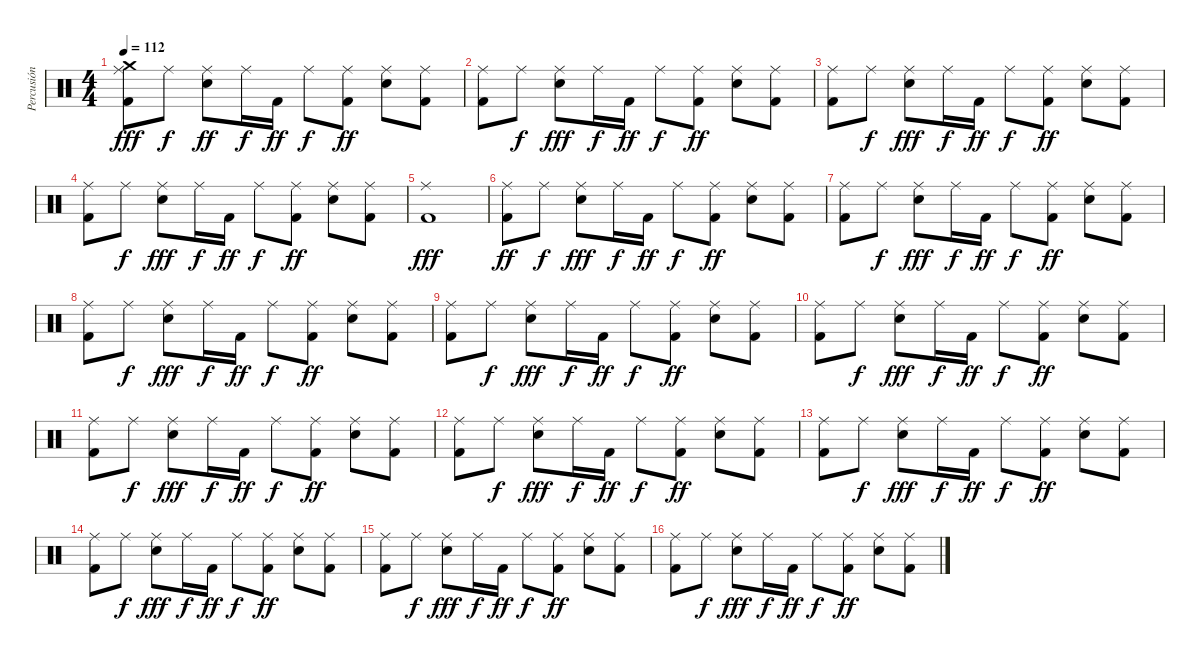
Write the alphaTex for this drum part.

\track ("Percusión" "Percusión") {instrument percussion}
\staff {score}
\articulation defaults
\ts (4 4)
\tempo 112
\clef neutral
\ks c
("Kick (hit) 2" "Ride (middle)" "Crash medium (hit)").8{dy fff} "Ride (middle)".8{dy f} ("Snare (hit) 2" "Ride (middle)").8{dy ff} "Ride (middle)".16{dy f} "Kick (hit) 2".16{dy ff} "Ride (middle)".8{dy f} ("Kick (hit) 2" "Ride (middle)").8{dy ff} ("Snare (hit) 2" "Ride (middle)").8 ("Kick (hit) 2" "Ride (middle)").8 |
("Kick (hit) 2" "Ride (middle)").8 "Ride (middle)".8{dy f} ("Snare (hit) 2" "Ride (middle)").8{dy fff} "Ride (middle)".16{dy f} "Kick (hit) 2".16{dy ff} "Ride (middle)".8{dy f} ("Kick (hit) 2" "Ride (middle)").8{dy ff} ("Snare (hit) 2" "Ride (middle)").8 ("Kick (hit) 2" "Ride (middle)").8 |
("Kick (hit) 2" "Ride (middle)").8 "Ride (middle)".8{dy f} ("Snare (hit) 2" "Ride (middle)").8{dy fff} "Ride (middle)".16{dy f} "Kick (hit) 2".16{dy ff} "Ride (middle)".8{dy f} ("Kick (hit) 2" "Ride (middle)").8{dy ff} ("Snare (hit) 2" "Ride (middle)").8 ("Kick (hit) 2" "Ride (middle)").8 |
("Kick (hit) 2" "Ride (middle)").8 "Ride (middle)".8{dy f} ("Snare (hit) 2" "Ride (middle)").8{dy fff} "Ride (middle)".16{dy f} "Kick (hit) 2".16{dy ff} "Ride (middle)".8{dy f} ("Kick (hit) 2" "Ride (middle)").8{dy ff} ("Snare (hit) 2" "Ride (middle)").8 ("Kick (hit) 2" "Ride (middle)").8 |
("Ride (middle)" "Kick (hit) 2").1{dy fff} |
("Kick (hit) 2" "Ride (middle)").8{dy ff} "Ride (middle)".8{dy f} ("Snare (hit) 2" "Ride (middle)").8{dy fff} "Ride (middle)".16{dy f} "Kick (hit) 2".16{dy ff} "Ride (middle)".8{dy f} ("Kick (hit) 2" "Ride (middle)").8{dy ff} ("Snare (hit) 2" "Ride (middle)").8 ("Kick (hit) 2" "Ride (middle)").8 |
("Kick (hit) 2" "Ride (middle)").8 "Ride (middle)".8{dy f} ("Snare (hit) 2" "Ride (middle)").8{dy fff} "Ride (middle)".16{dy f} "Kick (hit) 2".16{dy ff} "Ride (middle)".8{dy f} ("Kick (hit) 2" "Ride (middle)").8{dy ff} ("Snare (hit) 2" "Ride (middle)").8 ("Kick (hit) 2" "Ride (middle)").8 |
("Kick (hit) 2" "Ride (middle)").8 "Ride (middle)".8{dy f} ("Snare (hit) 2" "Ride (middle)").8{dy fff} "Ride (middle)".16{dy f} "Kick (hit) 2".16{dy ff} "Ride (middle)".8{dy f} ("Kick (hit) 2" "Ride (middle)").8{dy ff} ("Snare (hit) 2" "Ride (middle)").8 ("Kick (hit) 2" "Ride (middle)").8 |
("Kick (hit) 2" "Ride (middle)").8 "Ride (middle)".8{dy f} ("Snare (hit) 2" "Ride (middle)").8{dy fff} "Ride (middle)".16{dy f} "Kick (hit) 2".16{dy ff} "Ride (middle)".8{dy f} ("Kick (hit) 2" "Ride (middle)").8{dy ff} ("Snare (hit) 2" "Ride (middle)").8 ("Kick (hit) 2" "Ride (middle)").8 |
("Kick (hit) 2" "Ride (middle)").8 "Ride (middle)".8{dy f} ("Snare (hit) 2" "Ride (middle)").8{dy fff} "Ride (middle)".16{dy f} "Kick (hit) 2".16{dy ff} "Ride (middle)".8{dy f} ("Kick (hit) 2" "Ride (middle)").8{dy ff} ("Snare (hit) 2" "Ride (middle)").8 ("Kick (hit) 2" "Ride (middle)").8 |
("Kick (hit) 2" "Ride (middle)").8 "Ride (middle)".8{dy f} ("Snare (hit) 2" "Ride (middle)").8{dy fff} "Ride (middle)".16{dy f} "Kick (hit) 2".16{dy ff} "Ride (middle)".8{dy f} ("Kick (hit) 2" "Ride (middle)").8{dy ff} ("Snare (hit) 2" "Ride (middle)").8 ("Kick (hit) 2" "Ride (middle)").8 |
("Kick (hit) 2" "Ride (middle)").8 "Ride (middle)".8{dy f} ("Snare (hit) 2" "Ride (middle)").8{dy fff} "Ride (middle)".16{dy f} "Kick (hit) 2".16{dy ff} "Ride (middle)".8{dy f} ("Kick (hit) 2" "Ride (middle)").8{dy ff} ("Snare (hit) 2" "Ride (middle)").8 ("Kick (hit) 2" "Ride (middle)").8 |
("Kick (hit) 2" "Ride (middle)").8 "Ride (middle)".8{dy f} ("Snare (hit) 2" "Ride (middle)").8{dy fff} "Ride (middle)".16{dy f} "Kick (hit) 2".16{dy ff} "Ride (middle)".8{dy f} ("Kick (hit) 2" "Ride (middle)").8{dy ff} ("Snare (hit) 2" "Ride (middle)").8 ("Kick (hit) 2" "Ride (middle)").8 |
("Kick (hit) 2" "Ride (middle)").8 "Ride (middle)".8{dy f} ("Snare (hit) 2" "Ride (middle)").8{dy fff} "Ride (middle)".16{dy f} "Kick (hit) 2".16{dy ff} "Ride (middle)".8{dy f} ("Kick (hit) 2" "Ride (middle)").8{dy ff} ("Snare (hit) 2" "Ride (middle)").8 ("Kick (hit) 2" "Ride (middle)").8 |
("Kick (hit) 2" "Ride (middle)").8 "Ride (middle)".8{dy f} ("Snare (hit) 2" "Ride (middle)").8{dy fff} "Ride (middle)".16{dy f} "Kick (hit) 2".16{dy ff} "Ride (middle)".8{dy f} ("Kick (hit) 2" "Ride (middle)").8{dy ff} ("Snare (hit) 2" "Ride (middle)").8 ("Kick (hit) 2" "Ride (middle)").8 |
("Kick (hit) 2" "Ride (middle)").8 "Ride (middle)".8{dy f} ("Snare (hit) 2" "Ride (middle)").8{dy fff} "Ride (middle)".16{dy f} "Kick (hit) 2".16{dy ff} "Ride (middle)".8{dy f} ("Kick (hit) 2" "Ride (middle)").8{dy ff} ("Snare (hit) 2" "Ride (middle)").8 ("Kick (hit) 2" "Ride (middle)").8
